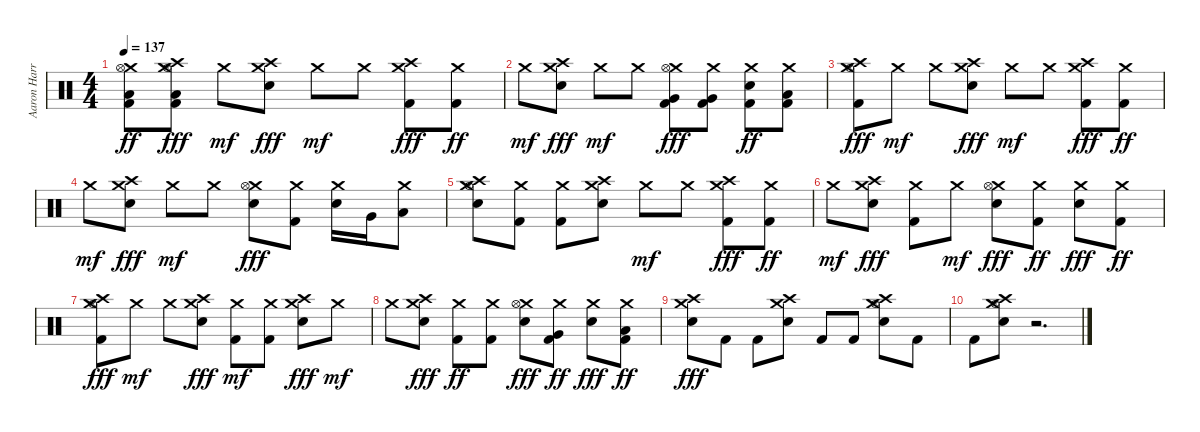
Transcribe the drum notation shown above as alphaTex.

\track ("Aaron Harris" "Aaron Harr") {instrument percussion}
\staff {score}
\articulation defaults
\ts (4 4)
\tempo 137
\clef neutral
\ks c
("Crash medium (hit)" "Hi-Hat (open)" "Low Floor Tom (hit)" "Kick (hit) 2").8{dy ff} ("Crash medium (hit)" "Hi-Hat (open)" "Crash high (hit)" "Low Floor Tom (hit)" "Kick (hit) 2").8{dy fff} "Crash medium (hit)".8{dy mf} ("Crash medium (hit)" "Crash high (hit)" "Electric Snare (hit)").8{dy fff} "Crash medium (hit)".8{dy mf} "Crash medium (hit)".8 ("Crash medium (hit)" "Crash high (hit)" "Kick (hit) 2").8{dy fff} ("Crash medium (hit)" "Kick (hit) 2").8{dy ff} |
"Crash medium (hit)".8{dy mf} ("Crash medium (hit)" "Crash high (hit)" "Electric Snare (hit)").8{dy fff} "Crash medium (hit)".8{dy mf} "Crash medium (hit)".8 ("Crash medium (hit)" "Hi-Hat (open)" "Very Low Tom (hit)" "Kick (hit) 2").8{dy fff} ("Crash medium (hit)" "Very Low Tom (hit)" "Kick (hit) 2").8 ("Crash medium (hit)" "Electric Snare (hit)" "Kick (hit) 2").8{dy ff} ("Crash medium (hit)" "Low Floor Tom (hit)" "Kick (hit) 2").8 |
("Crash medium (hit)" "Crash high (hit)" "Hi-Hat (open)" "Kick (hit) 2").8{dy fff} "Crash medium (hit)".8{dy mf} "Crash medium (hit)".8 ("Crash medium (hit)" "Crash high (hit)" "Electric Snare (hit)").8{dy fff} "Crash medium (hit)".8{dy mf} "Crash medium (hit)".8 ("Crash medium (hit)" "Crash high (hit)" "Kick (hit) 2").8{dy fff} ("Crash medium (hit)" "Kick (hit) 2").8{dy ff} |
"Crash medium (hit)".8{dy mf} ("Crash medium (hit)" "Crash high (hit)" "Electric Snare (hit)").8{dy fff} "Crash medium (hit)".8{dy mf} "Crash medium (hit)".8 ("Crash medium (hit)" "Hi-Hat (open)" "Electric Snare (hit)").8{dy fff} ("Crash medium (hit)" "Kick (hit) 2").8 ("Crash medium (hit)" "Electric Snare (hit)").16 "Very Low Tom (hit)".16 ("Crash medium (hit)" "Low Floor Tom (hit)").8 |
("Crash medium (hit)" "Crash high (hit)" "Hi-Hat (open)" "Electric Snare (hit)").8 ("Crash medium (hit)" "Kick (hit) 2").8 ("Crash medium (hit)" "Kick (hit) 2").8 ("Crash medium (hit)" "Crash high (hit)" "Electric Snare (hit)").8 "Crash medium (hit)".8{dy mf} "Crash medium (hit)".8 ("Crash medium (hit)" "Crash high (hit)" "Kick (hit) 2").8{dy fff} ("Crash medium (hit)" "Kick (hit) 2").8{dy ff} |
"Crash medium (hit)".8{dy mf} ("Crash medium (hit)" "Crash high (hit)" "Electric Snare (hit)").8{dy fff} ("Crash medium (hit)" "Kick (hit) 2").8 "Crash medium (hit)".8{dy mf} ("Crash medium (hit)" "Hi-Hat (open)" "Electric Snare (hit)").8{dy fff} ("Crash medium (hit)" "Kick (hit) 2").8{dy ff} ("Crash medium (hit)" "Electric Snare (hit)").8{dy fff} ("Crash medium (hit)" "Kick (hit) 2").8{dy ff} |
("Crash medium (hit)" "Crash high (hit)" "Hi-Hat (open)" "Kick (hit) 2").8{dy fff} "Crash medium (hit)".8{dy mf} "Crash medium (hit)".8 ("Crash medium (hit)" "Crash high (hit)" "Electric Snare (hit)").8{dy fff} ("Crash medium (hit)" "Kick (hit) 2").8{dy mf} ("Crash medium (hit)" "Kick (hit) 2").8 ("Crash medium (hit)" "Crash high (hit)" "Electric Snare (hit)").8{dy fff} "Crash medium (hit)".8{dy mf} |
"Crash medium (hit)".8 ("Crash medium (hit)" "Crash high (hit)" "Electric Snare (hit)").8{dy fff} ("Crash medium (hit)" "Kick (hit) 2").8{dy ff} ("Crash medium (hit)" "Kick (hit) 2").8 ("Crash medium (hit)" "Hi-Hat (open)" "Electric Snare (hit)").8{dy fff} ("Crash medium (hit)" "Very Low Tom (hit)" "Kick (hit) 2").8{dy ff} ("Crash medium (hit)" "Electric Snare (hit)").8{dy fff} ("Crash medium (hit)" "Low Floor Tom (hit)" "Kick (hit) 2").8{dy ff} |
("Crash medium (hit)" "Crash high (hit)" "Electric Snare (hit)").8{dy fff} "Kick (hit) 2".8 "Kick (hit) 2".8 ("Crash medium (hit)" "Crash high (hit)" "Electric Snare (hit)").8 "Kick (hit) 2".8 "Kick (hit) 2".8 ("Crash high (hit)" "Crash medium (hit)" "Hi-Hat (open)" "Electric Snare (hit)").8 "Kick (hit) 2".8 |
"Kick (hit) 2".8 ("Crash high (hit)" "Crash medium (hit)" "Hi-Hat (open)" "Electric Snare (hit)").8 r.2{d}
